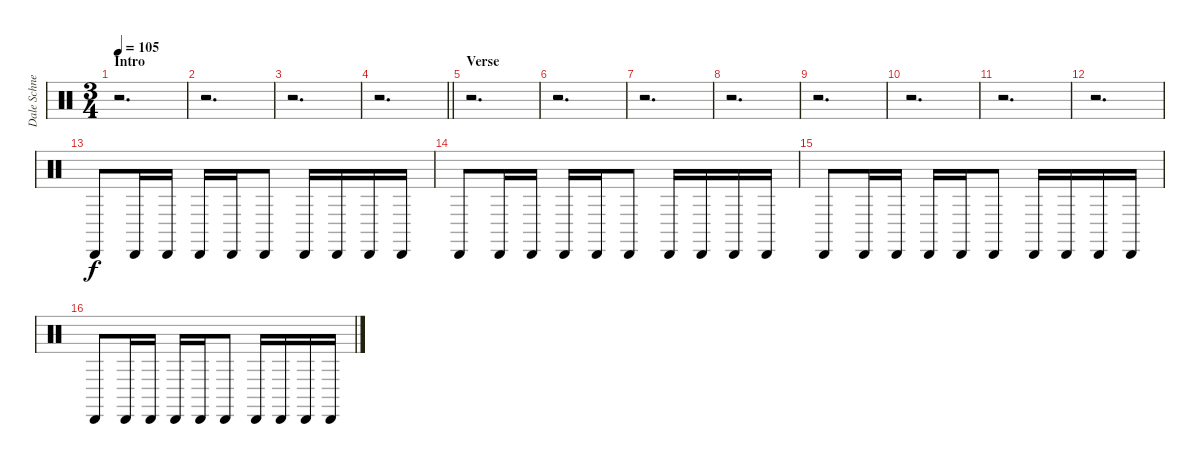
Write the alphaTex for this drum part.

\track ("Dale Schnettler (Drums)" "Dale Schne") {instrument percussion}
\staff {score}
\articulation defaults
\ts (3 4)
\section ("" "Intro")
\tempo 105
\clef neutral
\ks c
r.2{d dy f} |
r.2{d} |
r.2{d} |
\barLineRight lightlight
r.2{d} |
\section ("" "Verse")
r.2{d} |
r.2{d} |
r.2{d} |
r.2{d} |
r.2{d} |
r.2{d} |
r.2{d} |
r.2{d} |
"Cabasa (hit)".8 "Cabasa (hit)".16 "Cabasa (hit)".16 "Cabasa (hit)".16 "Cabasa (hit)".16 "Cabasa (hit)".8 "Cabasa (hit)".16 "Cabasa (hit)".16 "Cabasa (hit)".16 "Cabasa (hit)".16 |
"Cabasa (hit)".8 "Cabasa (hit)".16 "Cabasa (hit)".16 "Cabasa (hit)".16 "Cabasa (hit)".16 "Cabasa (hit)".8 "Cabasa (hit)".16 "Cabasa (hit)".16 "Cabasa (hit)".16 "Cabasa (hit)".16 |
"Cabasa (hit)".8 "Cabasa (hit)".16 "Cabasa (hit)".16 "Cabasa (hit)".16 "Cabasa (hit)".16 "Cabasa (hit)".8 "Cabasa (hit)".16 "Cabasa (hit)".16 "Cabasa (hit)".16 "Cabasa (hit)".16 |
"Cabasa (hit)".8 "Cabasa (hit)".16 "Cabasa (hit)".16 "Cabasa (hit)".16 "Cabasa (hit)".16 "Cabasa (hit)".8 "Cabasa (hit)".16 "Cabasa (hit)".16 "Cabasa (hit)".16 "Cabasa (hit)".16
